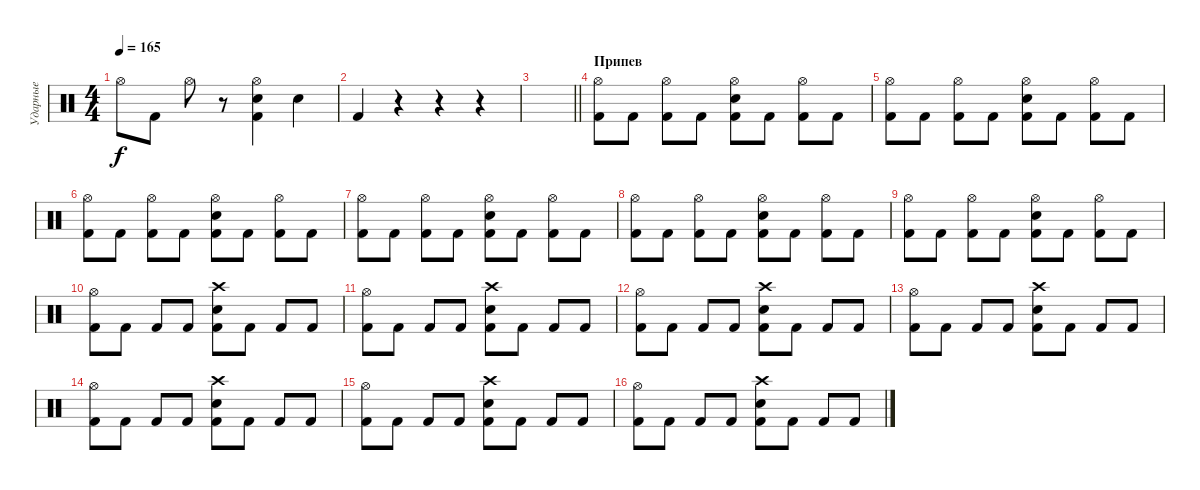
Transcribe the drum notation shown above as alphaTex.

\track ("Ударные" "Ударные") {instrument percussion}
\staff {score}
\articulation defaults
\ts (4 4)
\tempo 165
\clef neutral
\ks c "Hi-Hat (open)".8{dy f} "Kick (hit) 2".8 "Hi-Hat (open)".8
r.8 ("Snare (hit) 2" "Kick (hit) 2" "Hi-Hat (open)").4 "Snare (hit) 2".4 |
"Kick (hit) 2".4 r.4 r.4 r.4 |
\barLineRight lightlight
|
\section ("" "Припев")
("Kick (hit) 2" "Hi-Hat (open)").8 "Kick (hit) 2".8 ("Kick (hit) 2" "Hi-Hat (open)").8 "Kick (hit) 2".8 ("Kick (hit) 2" "Hi-Hat (open)" "Snare (hit) 2").8 "Kick (hit) 2".8 ("Kick (hit) 2" "Hi-Hat (open)").8 "Kick (hit) 2".8 |
("Kick (hit) 2" "Hi-Hat (open)").8 "Kick (hit) 2".8 ("Kick (hit) 2" "Hi-Hat (open)").8 "Kick (hit) 2".8 ("Kick (hit) 2" "Hi-Hat (open)" "Snare (hit) 2").8 "Kick (hit) 2".8 ("Kick (hit) 2" "Hi-Hat (open)").8 "Kick (hit) 2".8 |
("Kick (hit) 2" "Hi-Hat (open)").8 "Kick (hit) 2".8 ("Kick (hit) 2" "Hi-Hat (open)").8 "Kick (hit) 2".8 ("Kick (hit) 2" "Hi-Hat (open)" "Snare (hit) 2").8 "Kick (hit) 2".8 ("Kick (hit) 2" "Hi-Hat (open)").8 "Kick (hit) 2".8 |
("Kick (hit) 2" "Hi-Hat (open)").8 "Kick (hit) 2".8 ("Kick (hit) 2" "Hi-Hat (open)").8 "Kick (hit) 2".8 ("Kick (hit) 2" "Hi-Hat (open)" "Snare (hit) 2").8 "Kick (hit) 2".8 ("Kick (hit) 2" "Hi-Hat (open)").8 "Kick (hit) 2".8 |
("Kick (hit) 2" "Hi-Hat (open)").8 "Kick (hit) 2".8 ("Kick (hit) 2" "Hi-Hat (open)").8 "Kick (hit) 2".8 ("Kick (hit) 2" "Hi-Hat (open)" "Snare (hit) 2").8 "Kick (hit) 2".8 ("Kick (hit) 2" "Hi-Hat (open)").8 "Kick (hit) 2".8 |
("Kick (hit) 2" "Hi-Hat (open)").8 "Kick (hit) 2".8 ("Kick (hit) 2" "Hi-Hat (open)").8 "Kick (hit) 2".8 ("Kick (hit) 2" "Hi-Hat (open)" "Snare (hit) 2").8 "Kick (hit) 2".8 ("Kick (hit) 2" "Hi-Hat (open)").8 "Kick (hit) 2".8 |
("Kick (hit) 2" "Hi-Hat (open)").8 "Kick (hit) 2".8 "Kick (hit) 2".8 "Kick (hit) 2".8 ("Kick (hit) 2" "Crash high (hit)" "Snare (hit) 2").8 "Kick (hit) 2".8 "Kick (hit) 2".8 "Kick (hit) 2".8 |
("Kick (hit) 2" "Hi-Hat (open)").8 "Kick (hit) 2".8 "Kick (hit) 2".8 "Kick (hit) 2".8 ("Kick (hit) 2" "Crash high (hit)" "Snare (hit) 2").8 "Kick (hit) 2".8 "Kick (hit) 2".8 "Kick (hit) 2".8 |
("Kick (hit) 2" "Hi-Hat (open)").8 "Kick (hit) 2".8 "Kick (hit) 2".8 "Kick (hit) 2".8 ("Kick (hit) 2" "Crash high (hit)" "Snare (hit) 2").8 "Kick (hit) 2".8 "Kick (hit) 2".8 "Kick (hit) 2".8 |
("Kick (hit) 2" "Hi-Hat (open)").8 "Kick (hit) 2".8 "Kick (hit) 2".8 "Kick (hit) 2".8 ("Kick (hit) 2" "Crash high (hit)" "Snare (hit) 2").8 "Kick (hit) 2".8 "Kick (hit) 2".8 "Kick (hit) 2".8 |
("Kick (hit) 2" "Hi-Hat (open)").8 "Kick (hit) 2".8 "Kick (hit) 2".8 "Kick (hit) 2".8 ("Kick (hit) 2" "Crash high (hit)" "Snare (hit) 2").8 "Kick (hit) 2".8 "Kick (hit) 2".8 "Kick (hit) 2".8 |
("Kick (hit) 2" "Hi-Hat (open)").8 "Kick (hit) 2".8 "Kick (hit) 2".8 "Kick (hit) 2".8 ("Kick (hit) 2" "Crash high (hit)" "Snare (hit) 2").8 "Kick (hit) 2".8 "Kick (hit) 2".8 "Kick (hit) 2".8 |
("Kick (hit) 2" "Hi-Hat (open)").8 "Kick (hit) 2".8 "Kick (hit) 2".8 "Kick (hit) 2".8 ("Kick (hit) 2" "Crash high (hit)" "Snare (hit) 2").8 "Kick (hit) 2".8 "Kick (hit) 2".8 "Kick (hit) 2".8
